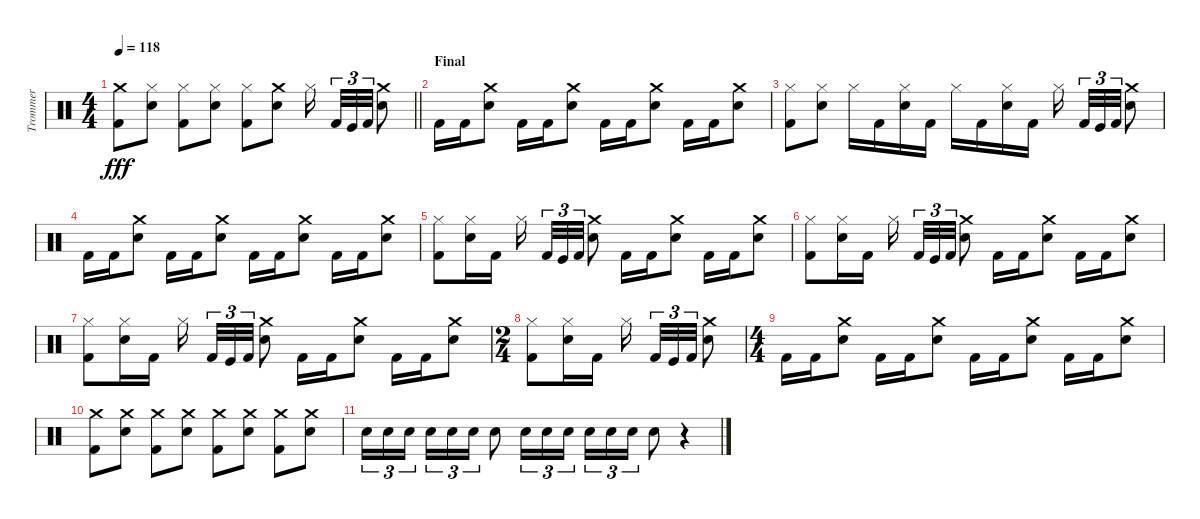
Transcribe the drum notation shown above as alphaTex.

\track ("Trommer" "Trommer") {instrument percussion}
\staff {score}
\articulation defaults
\ts (4 4)
\tempo 118
\clef neutral
\barLineRight lightlight
\ks c
("Crash medium (hit)" "Kick (hit) 2").8{dy fff} ("Hi-Hat (closed)" "Electric Snare (hit)").8 ("Hi-Hat (closed)" "Kick (hit) 2").8 ("Hi-Hat (closed)" "Electric Snare (hit)").8 ("Hi-Hat (closed)" "Kick (hit) 2").8 ("Crash medium (hit)" "Electric Snare (hit)").8 "Hi-Hat (closed)".16{beam splitsecondary} "Kick (hit) 2".32{tu (3 2)} "Kick (hit)".32{tu (3 2)} "Kick (hit) 2".32{tu (3 2)} ("Crash medium (hit)" "Electric Snare (hit)").8 |
\section ("" "Final")
"Kick (hit) 2".16 "Kick (hit) 2".16 ("Crash medium (hit)" "Electric Snare (hit)").8 "Kick (hit) 2".16 "Kick (hit) 2".16 ("Crash medium (hit)" "Electric Snare (hit)").8 "Kick (hit) 2".16 "Kick (hit) 2".16 ("Crash medium (hit)" "Electric Snare (hit)").8 "Kick (hit) 2".16 "Kick (hit) 2".16 ("Crash medium (hit)" "Electric Snare (hit)").8 |
("Hi-Hat (closed)" "Kick (hit) 2").8 ("Hi-Hat (closed)" "Electric Snare (hit)").8 "Hi-Hat (closed)".16 "Kick (hit) 2".16 ("Hi-Hat (closed)" "Electric Snare (hit)").16 "Kick (hit) 2".16 "Hi-Hat (closed)".16 "Kick (hit) 2".16 ("Hi-Hat (closed)" "Electric Snare (hit)").16 "Kick (hit) 2".16 "Hi-Hat (closed)".16{beam splitsecondary} "Kick (hit) 2".32{tu (3 2)} "Kick (hit)".32{tu (3 2)} "Kick (hit) 2".32{tu (3 2)} ("Crash medium (hit)" "Electric Snare (hit)").8 |
"Kick (hit) 2".16 "Kick (hit) 2".16 ("Crash medium (hit)" "Electric Snare (hit)").8 "Kick (hit) 2".16 "Kick (hit) 2".16 ("Crash medium (hit)" "Electric Snare (hit)").8 "Kick (hit) 2".16 "Kick (hit) 2".16 ("Crash medium (hit)" "Electric Snare (hit)").8 "Kick (hit) 2".16 "Kick (hit) 2".16 ("Crash medium (hit)" "Electric Snare (hit)").8 |
("Hi-Hat (closed)" "Kick (hit) 2").8 ("Hi-Hat (closed)" "Electric Snare (hit)").16 "Kick (hit) 2".16 "Hi-Hat (closed)".16{beam splitsecondary} "Kick (hit) 2".32{tu (3 2)} "Kick (hit)".32{tu (3 2)} "Kick (hit) 2".32{tu (3 2)} ("Crash medium (hit)" "Electric Snare (hit)").8 "Kick (hit) 2".16 "Kick (hit) 2".16 ("Crash medium (hit)" "Electric Snare (hit)").8 "Kick (hit) 2".16 "Kick (hit) 2".16 ("Crash medium (hit)" "Electric Snare (hit)").8 |
("Hi-Hat (closed)" "Kick (hit) 2").8 ("Hi-Hat (closed)" "Electric Snare (hit)").16 "Kick (hit) 2".16 "Hi-Hat (closed)".16{beam splitsecondary} "Kick (hit) 2".32{tu (3 2)} "Kick (hit)".32{tu (3 2)} "Kick (hit) 2".32{tu (3 2)} ("Crash medium (hit)" "Electric Snare (hit)").8 "Kick (hit) 2".16 "Kick (hit) 2".16 ("Crash medium (hit)" "Electric Snare (hit)").8 "Kick (hit) 2".16 "Kick (hit) 2".16 ("Crash medium (hit)" "Electric Snare (hit)").8 |
("Hi-Hat (closed)" "Kick (hit) 2").8 ("Hi-Hat (closed)" "Electric Snare (hit)").16 "Kick (hit) 2".16 "Hi-Hat (closed)".16{beam splitsecondary} "Kick (hit) 2".32{tu (3 2)} "Kick (hit)".32{tu (3 2)} "Kick (hit) 2".32{tu (3 2)} ("Crash medium (hit)" "Electric Snare (hit)").8 "Kick (hit) 2".16 "Kick (hit) 2".16 ("Crash medium (hit)" "Electric Snare (hit)").8 "Kick (hit) 2".16 "Kick (hit) 2".16 ("Crash medium (hit)" "Electric Snare (hit)").8 |
\ts (2 4)
("Hi-Hat (closed)" "Kick (hit) 2").8 ("Hi-Hat (closed)" "Electric Snare (hit)").16 "Kick (hit) 2".16 "Hi-Hat (closed)".16{beam splitsecondary} "Kick (hit) 2".32{tu (3 2)} "Kick (hit)".32{tu (3 2)} "Kick (hit) 2".32{tu (3 2)} ("Crash medium (hit)" "Electric Snare (hit)").8 |
\ts (4 4)
"Kick (hit) 2".16 "Kick (hit) 2".16 ("Crash medium (hit)" "Electric Snare (hit)").8 "Kick (hit) 2".16 "Kick (hit) 2".16 ("Crash medium (hit)" "Electric Snare (hit)").8 "Kick (hit) 2".16 "Kick (hit) 2".16 ("Crash medium (hit)" "Electric Snare (hit)").8 "Kick (hit) 2".16 "Kick (hit) 2".16 ("Crash medium (hit)" "Electric Snare (hit)").8 |
("Crash medium (hit)" "Kick (hit) 2").8 ("Crash medium (hit)" "Electric Snare (hit)").8 ("Crash medium (hit)" "Kick (hit) 2").8 ("Crash medium (hit)" "Electric Snare (hit)").8 ("Crash medium (hit)" "Kick (hit) 2").8 ("Crash medium (hit)" "Electric Snare (hit)").8 ("Crash medium (hit)" "Kick (hit) 2").8 ("Crash medium (hit)" "Electric Snare (hit)").8 |
"Electric Snare (hit)".16{tu (3 2)} "Electric Snare (hit)".16{tu (3 2)} "Electric Snare (hit)".16{tu (3 2) beam splitsecondary} "Electric Snare (hit)".16{tu (3 2)} "Electric Snare (hit)".16{tu (3 2)} "Electric Snare (hit)".16{tu (3 2)} "Electric Snare (hit)".8 "Electric Snare (hit)".16{tu (3 2)} "Electric Snare (hit)".16{tu (3 2)} "Electric Snare (hit)".16{tu (3 2)} "Electric Snare (hit)".16{tu (3 2)} "Electric Snare (hit)".16{tu (3 2)} "Electric Snare (hit)".16{tu (3 2)} "Electric Snare (hit)".8 r.4
